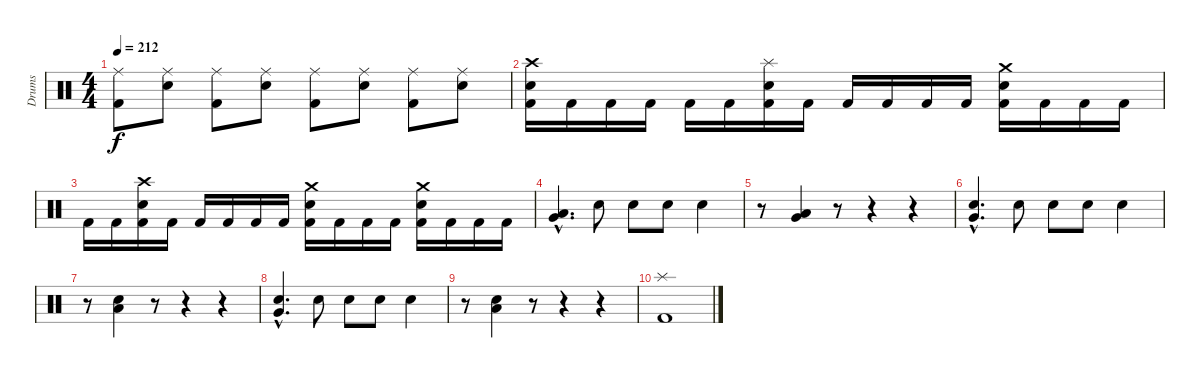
\track ("Drums" "Drums") {instrument percussion}
\staff {score}
\articulation defaults
\ts (4 4)
\tempo 212
\clef neutral
\ks c
("Ride (middle)" "Kick (hit) 2").8{dy f} ("Ride (middle)" "Electric Snare (hit)").8 ("Ride (middle)" "Kick (hit) 2").8 ("Ride (middle)" "Electric Snare (hit)").8 ("Ride (middle)" "Kick (hit) 2").8 ("Ride (middle)" "Electric Snare (hit)").8 ("Ride (middle)" "Kick (hit) 2").8 ("Ride (middle)" "Electric Snare (hit)").8 |
("Crash high (hit)" "Electric Snare (hit)" "Kick (hit) 2").16 "Kick (hit) 2".16 "Kick (hit) 2".16 "Kick (hit) 2".16 "Kick (hit) 2".16 "Kick (hit) 2".16 ("Splash (hit)" "Electric Snare (hit)" "Kick (hit) 2").16 "Kick (hit) 2".16 "Kick (hit) 2".16 "Kick (hit) 2".16 "Kick (hit) 2".16 "Kick (hit) 2".16 ("Crash medium (hit)" "Electric Snare (hit)" "Kick (hit) 2").16 "Kick (hit) 2".16 "Kick (hit) 2".16 "Kick (hit) 2".16 |
"Kick (hit) 2".16 "Kick (hit) 2".16 ("Crash high (hit)" "Electric Snare (hit)" "Kick (hit) 2").16 "Kick (hit) 2".16 "Kick (hit) 2".16 "Kick (hit) 2".16 "Kick (hit) 2".16 "Kick (hit) 2".16 ("Crash medium (hit)" "Electric Snare (hit)" "Kick (hit) 2").16 "Kick (hit) 2".16 "Kick (hit) 2".16 "Kick (hit) 2".16 ("Crash medium (hit)" "Electric Snare (hit)" "Kick (hit) 2").16 "Kick (hit) 2".16 "Kick (hit) 2".16 "Kick (hit) 2".16 |
("Very Low Tom (hit)"{hac} "Low Floor Tom (hit)"{hac}).4{d} "Electric Snare (hit)".8 "Electric Snare (hit)".8 "Electric Snare (hit)".8 "Electric Snare (hit)".4 |
r.8 ("Very Low Tom (hit)" "Low Floor Tom (hit)").4 r.8 r.4 r.4 |
("Very Low Tom (hit)"{hac} "Electric Snare (hit)"{hac}).4{d} "Electric Snare (hit)".8 "Electric Snare (hit)".8 "Electric Snare (hit)".8 "Electric Snare (hit)".4 |
r.8 ("Low Floor Tom (hit)" "Electric Snare (hit)").4 r.8 r.4 r.4 |
("Very Low Tom (hit)"{hac} "Electric Snare (hit)"{hac}).4{d} "Electric Snare (hit)".8 "Electric Snare (hit)".8 "Electric Snare (hit)".8 "Electric Snare (hit)".4 |
r.8 ("Low Floor Tom (hit)" "Electric Snare (hit)").4 r.8 r.4 r.4 |
("Splash (hit)" "Kick (hit) 2").1
